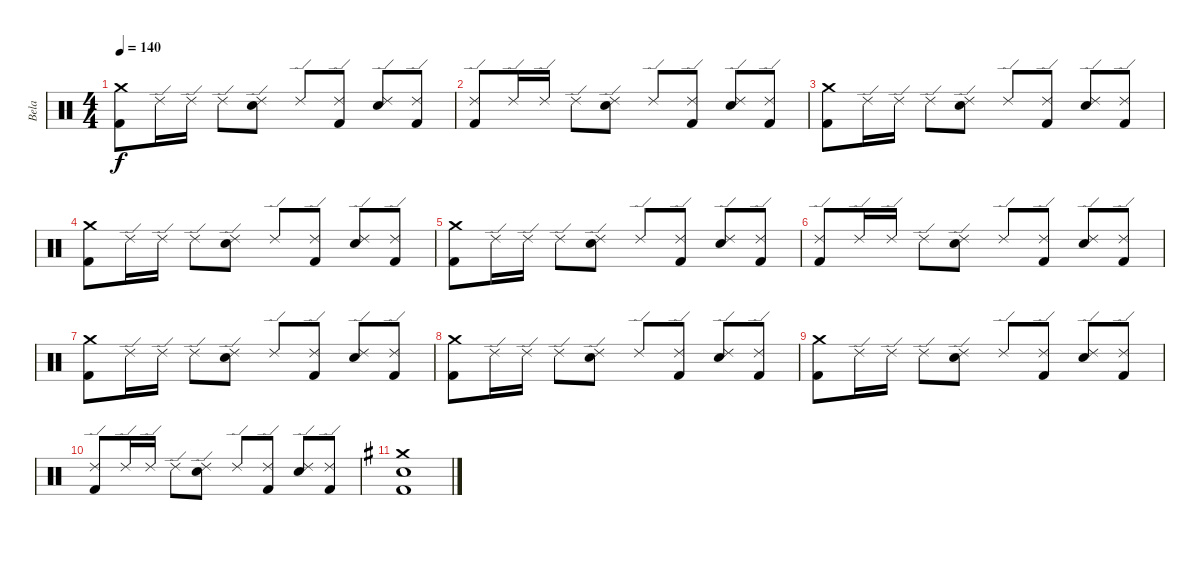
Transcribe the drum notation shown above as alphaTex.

\track ("Bela" "Bela") {instrument percussion}
\staff {score}
\articulation defaults
\ts (4 4)
\tempo 140
\clef neutral
\ks c
("Crash medium (hit)" "Kick (hit) 2").8{dy f} "Ride (edge) 2".16 "Ride (edge) 2".16 "Ride (edge) 2".8 ("Ride (edge) 2" "Snare (hit) 2").8 "Ride (edge) 2".8 ("Ride (edge) 2" "Kick (hit) 2").8 ("Ride (edge) 2" "Snare (hit) 2").8 ("Ride (edge) 2" "Kick (hit) 2").8 |
("Ride (edge) 2" "Kick (hit) 2").8 "Ride (edge) 2".16 "Ride (edge) 2".16 "Ride (edge) 2".8 ("Ride (edge) 2" "Snare (hit) 2").8 "Ride (edge) 2".8 ("Ride (edge) 2" "Kick (hit) 2").8 ("Ride (edge) 2" "Snare (hit) 2").8 ("Ride (edge) 2" "Kick (hit) 2").8 |
("Crash medium (hit)" "Kick (hit) 2").8 "Ride (edge) 2".16 "Ride (edge) 2".16 "Ride (edge) 2".8 ("Ride (edge) 2" "Snare (hit) 2").8 "Ride (edge) 2".8 ("Ride (edge) 2" "Kick (hit) 2").8 ("Ride (edge) 2" "Snare (hit) 2").8 ("Ride (edge) 2" "Kick (hit) 2").8 |
("Crash medium (hit)" "Kick (hit) 2").8 "Ride (edge) 2".16 "Ride (edge) 2".16 "Ride (edge) 2".8 ("Ride (edge) 2" "Snare (hit) 2").8 "Ride (edge) 2".8 ("Ride (edge) 2" "Kick (hit) 2").8 ("Ride (edge) 2" "Snare (hit) 2").8 ("Ride (edge) 2" "Kick (hit) 2").8 |
("Crash medium (hit)" "Kick (hit) 2").8 "Ride (edge) 2".16 "Ride (edge) 2".16 "Ride (edge) 2".8 ("Ride (edge) 2" "Snare (hit) 2").8 "Ride (edge) 2".8 ("Ride (edge) 2" "Kick (hit) 2").8 ("Ride (edge) 2" "Snare (hit) 2").8 ("Ride (edge) 2" "Kick (hit) 2").8 |
("Ride (edge) 2" "Kick (hit) 2").8 "Ride (edge) 2".16 "Ride (edge) 2".16 "Ride (edge) 2".8 ("Ride (edge) 2" "Snare (hit) 2").8 "Ride (edge) 2".8 ("Ride (edge) 2" "Kick (hit) 2").8 ("Ride (edge) 2" "Snare (hit) 2").8 ("Ride (edge) 2" "Kick (hit) 2").8 |
("Crash medium (hit)" "Kick (hit) 2").8 "Ride (edge) 2".16 "Ride (edge) 2".16 "Ride (edge) 2".8 ("Ride (edge) 2" "Snare (hit) 2").8 "Ride (edge) 2".8 ("Ride (edge) 2" "Kick (hit) 2").8 ("Ride (edge) 2" "Snare (hit) 2").8 ("Ride (edge) 2" "Kick (hit) 2").8 |
("Crash medium (hit)" "Kick (hit) 2").8 "Ride (edge) 2".16 "Ride (edge) 2".16 "Ride (edge) 2".8 ("Ride (edge) 2" "Snare (hit) 2").8 "Ride (edge) 2".8 ("Ride (edge) 2" "Kick (hit) 2").8 ("Ride (edge) 2" "Snare (hit) 2").8 ("Ride (edge) 2" "Kick (hit) 2").8 |
("Crash medium (hit)" "Kick (hit) 2").8 "Ride (edge) 2".16 "Ride (edge) 2".16 "Ride (edge) 2".8 ("Ride (edge) 2" "Snare (hit) 2").8 "Ride (edge) 2".8 ("Ride (edge) 2" "Kick (hit) 2").8 ("Ride (edge) 2" "Snare (hit) 2").8 ("Ride (edge) 2" "Kick (hit) 2").8 |
("Ride (edge) 2" "Kick (hit) 2").8 "Ride (edge) 2".16 "Ride (edge) 2".16 "Ride (edge) 2".8 ("Ride (edge) 2" "Snare (hit) 2").8 "Ride (edge) 2".8 ("Ride (edge) 2" "Kick (hit) 2").8 ("Ride (edge) 2" "Snare (hit) 2").8 ("Ride (edge) 2" "Kick (hit) 2").8 |
\ks g
("Crash medium (hit)" "Snare (hit) 2" "Kick (hit) 2").1
